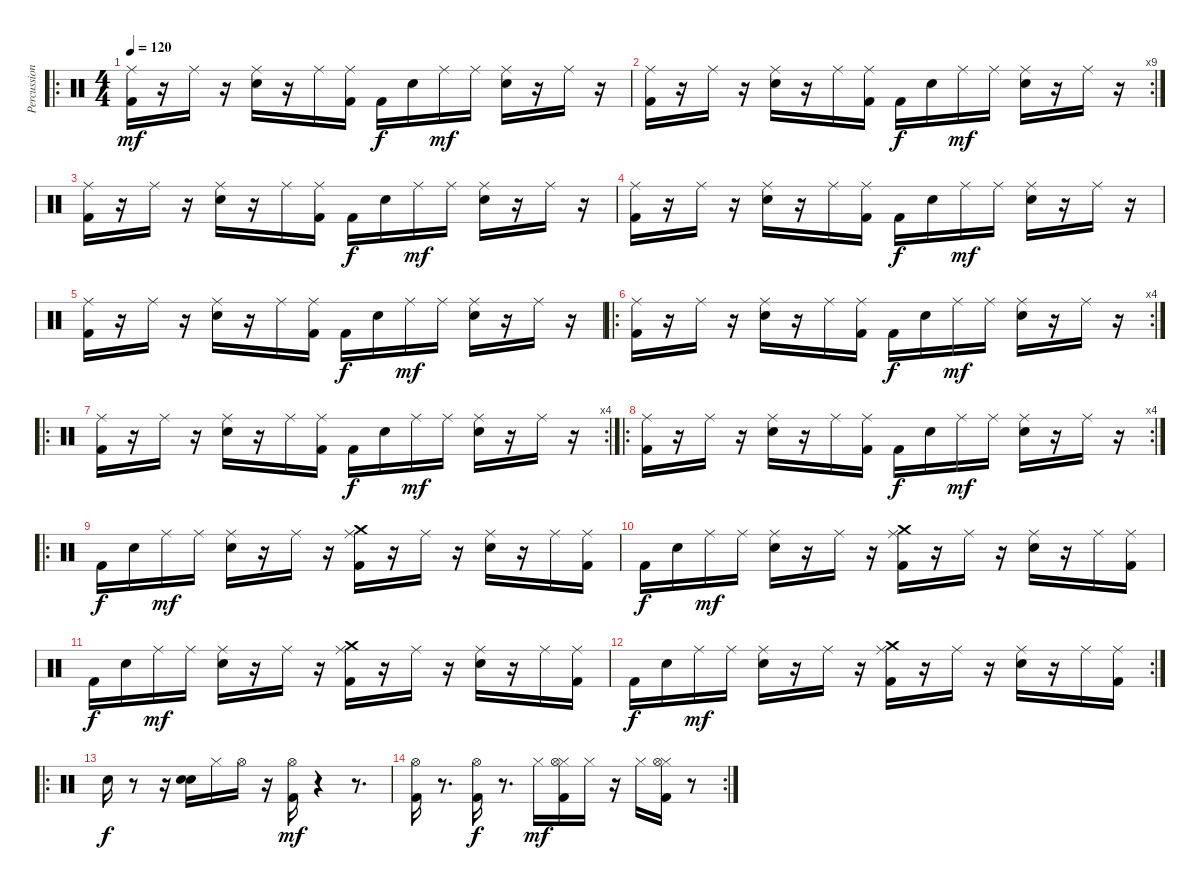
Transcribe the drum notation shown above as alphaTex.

\track ("Percussioni" "Percussion") {instrument percussion}
\staff {score}
\articulation defaults
\ro
\ts (4 4)
\tempo 120
\clef neutral
\ks c
("Kick (hit) 2" "Ride (middle)").16{dy mf} r.16 "Ride (middle)".16 r.16 ("Electric Snare (hit)" "Ride (middle)").16 r.16 "Ride (middle)".16 ("Kick (hit) 2" "Ride (middle)").16 "Kick (hit) 2".16{dy f} "Electric Snare (hit)".16 "Ride (middle)".16{dy mf} "Ride (middle)".16 ("Electric Snare (hit)" "Ride (middle)").16 r.16 "Ride (middle)".16 r.16 |
\rc 9
("Kick (hit) 2" "Ride (middle)").16 r.16 "Ride (middle)".16 r.16 ("Electric Snare (hit)" "Ride (middle)").16 r.16 "Ride (middle)".16 ("Kick (hit) 2" "Ride (middle)").16 "Kick (hit) 2".16{dy f} "Electric Snare (hit)".16 "Ride (middle)".16{dy mf} "Ride (middle)".16 ("Electric Snare (hit)" "Ride (middle)").16 r.16 "Ride (middle)".16 r.16 |
("Kick (hit) 2" "Ride (middle)").16 r.16 "Ride (middle)".16 r.16 ("Electric Snare (hit)" "Ride (middle)").16 r.16 "Ride (middle)".16 ("Kick (hit) 2" "Ride (middle)").16 "Kick (hit) 2".16{dy f} "Electric Snare (hit)".16 "Ride (middle)".16{dy mf} "Ride (middle)".16 ("Electric Snare (hit)" "Ride (middle)").16 r.16 "Ride (middle)".16 r.16 |
("Kick (hit) 2" "Ride (middle)").16 r.16 "Ride (middle)".16 r.16 ("Electric Snare (hit)" "Ride (middle)").16 r.16 "Ride (middle)".16 ("Kick (hit) 2" "Ride (middle)").16 "Kick (hit) 2".16{dy f} "Electric Snare (hit)".16 "Ride (middle)".16{dy mf} "Ride (middle)".16 ("Electric Snare (hit)" "Ride (middle)").16 r.16 "Ride (middle)".16 r.16 |
("Kick (hit) 2" "Ride (middle)").16 r.16 "Ride (middle)".16 r.16 ("Electric Snare (hit)" "Ride (middle)").16 r.16 "Ride (middle)".16 ("Kick (hit) 2" "Ride (middle)").16 "Kick (hit) 2".16{dy f} "Electric Snare (hit)".16 "Ride (middle)".16{dy mf} "Ride (middle)".16 ("Electric Snare (hit)" "Ride (middle)").16 r.16 "Ride (middle)".16 r.16 |
\ro
\rc 4
("Kick (hit) 2" "Ride (middle)").16 r.16 "Ride (middle)".16 r.16 ("Electric Snare (hit)" "Ride (middle)").16 r.16 "Ride (middle)".16 ("Kick (hit) 2" "Ride (middle)").16 "Kick (hit) 2".16{dy f} "Electric Snare (hit)".16 "Ride (middle)".16{dy mf} "Ride (middle)".16 ("Electric Snare (hit)" "Ride (middle)").16 r.16 "Ride (middle)".16 r.16 |
\ro
\rc 4
("Kick (hit) 2" "Ride (middle)").16 r.16 "Ride (middle)".16 r.16 ("Electric Snare (hit)" "Ride (middle)").16 r.16 "Ride (middle)".16 ("Kick (hit) 2" "Ride (middle)").16 "Kick (hit) 2".16{dy f} "Electric Snare (hit)".16 "Ride (middle)".16{dy mf} "Ride (middle)".16 ("Electric Snare (hit)" "Ride (middle)").16 r.16 "Ride (middle)".16 r.16 |
\ro
\rc 4
("Kick (hit) 2" "Ride (middle)").16 r.16 "Ride (middle)".16 r.16 ("Electric Snare (hit)" "Ride (middle)").16 r.16 "Ride (middle)".16 ("Kick (hit) 2" "Ride (middle)").16 "Kick (hit) 2".16{dy f} "Electric Snare (hit)".16 "Ride (middle)".16{dy mf} "Ride (middle)".16 ("Electric Snare (hit)" "Ride (middle)").16 r.16 "Ride (middle)".16 r.16 |
\ro "Kick (hit) 2".16{dy f} "Electric Snare (hit)".16 "Ride (middle)".16{dy mf} "Ride (middle)".16
("Electric Snare (hit)" "Ride (middle)").16 r.16 "Ride (middle)".16 r.16 ("Crash medium (hit)" "Kick (hit) 2" "Ride (middle)").16 r.16 "Ride (middle)".16 r.16 ("Electric Snare (hit)" "Ride (middle)").16 r.16 "Ride (middle)".16 ("Kick (hit) 2" "Ride (middle)").16 |
"Kick (hit) 2".16{dy f} "Electric Snare (hit)".16 "Ride (middle)".16{dy mf} "Ride (middle)".16 ("Electric Snare (hit)" "Ride (middle)").16 r.16 "Ride (middle)".16 r.16 ("Crash medium (hit)" "Kick (hit) 2" "Ride (middle)").16 r.16 "Ride (middle)".16 r.16 ("Electric Snare (hit)" "Ride (middle)").16 r.16 "Ride (middle)".16 ("Kick (hit) 2" "Ride (middle)").16 |
"Kick (hit) 2".16{dy f} "Electric Snare (hit)".16 "Ride (middle)".16{dy mf} "Ride (middle)".16 ("Electric Snare (hit)" "Ride (middle)").16 r.16 "Ride (middle)".16 r.16 ("Crash medium (hit)" "Kick (hit) 2" "Ride (middle)").16 r.16 "Ride (middle)".16 r.16 ("Electric Snare (hit)" "Ride (middle)").16 r.16 "Ride (middle)".16 ("Kick (hit) 2" "Ride (middle)").16 |
\rc 2 "Kick (hit) 2".16{dy f} "Electric Snare (hit)".16 "Ride (middle)".16{dy mf} "Ride (middle)".16
("Electric Snare (hit)" "Ride (middle)").16 r.16 "Ride (middle)".16 r.16 ("Crash medium (hit)" "Kick (hit) 2" "Ride (middle)").16 r.16 "Ride (middle)".16 r.16 ("Electric Snare (hit)" "Ride (middle)").16 r.16 "Ride (middle)".16 ("Kick (hit) 2" "Ride (middle)").16 |
\ro "Electric Snare (hit)".16{dy f}
r.8 r.16 ("Electric Snare (hit)" "Electric Snare (hit)").16 "Hi-Hat (closed)".16 "Hi-Hat (open)".16 r.16 ("Kick (hit) 2" "Hi-Hat (open)").16{dy mf} r.4 r.8{d} |
\rc 2
("Kick (hit) 2" "Hi-Hat (open)").16 r.8{d} ("Kick (hit) 2" "Hi-Hat (open)").16{dy f} r.8{d} "Hi-Hat (closed)".16{dy mf} ("Kick (hit) 2" "Hi-Hat (closed)" "Hi-Hat (open)").16 "Hi-Hat (closed)".16 r.16 "Hi-Hat (closed)".16 ("Kick (hit) 2" "Hi-Hat (closed)" "Hi-Hat (open)").16 r.8
